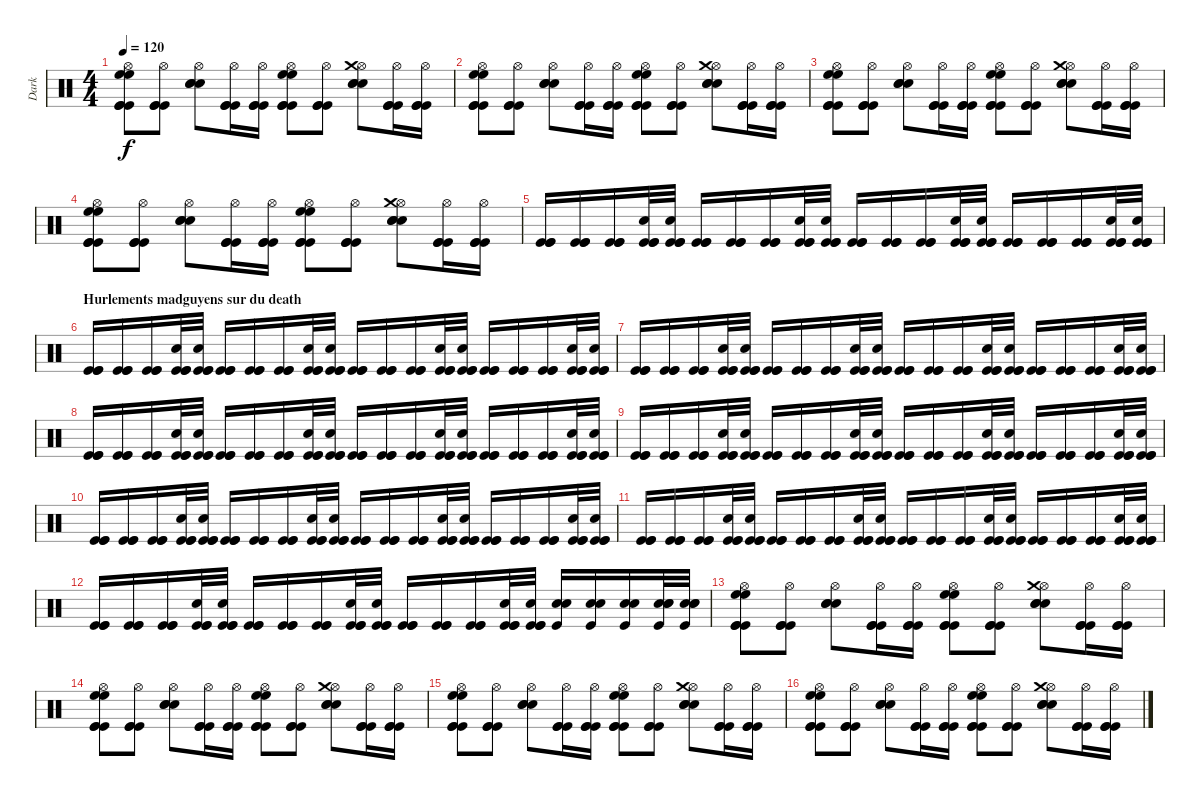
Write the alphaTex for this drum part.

\track ("Dark" "Dark") {instrument percussion}
\staff {score}
\articulation defaults
\ts (4 4)
\tempo 120
\clef neutral
\ks c
("Hi-Hat (open)" "High Floor Tom (hit)" "High Floor Tom (hit)" "Kick (hit)" "Kick (hit)" "Kick (hit)").8{dy f} ("Hi-Hat (open)" "Kick (hit)" "Kick (hit)" "Kick (hit)").8 ("Hi-Hat (open)" "Snare (hit) 2" "Snare (hit) 2" "Snare (hit) 2").8 ("Hi-Hat (open)" "Kick (hit)" "Kick (hit)" "Kick (hit)").16 ("Hi-Hat (open)" "Kick (hit)" "Kick (hit)" "Kick (hit)").16 ("Hi-Hat (open)" "High Floor Tom (hit)" "High Floor Tom (hit)" "Kick (hit)" "Kick (hit)" "Kick (hit)").8 ("Hi-Hat (open)" "Kick (hit)" "Kick (hit)" "Kick (hit)").8 ("Hi-Hat (open)" "Crash medium (hit)" "Snare (hit) 2" "Snare (hit) 2" "Snare (hit) 2").8 ("Hi-Hat (open)" "Kick (hit)" "Kick (hit)" "Kick (hit)").16 ("Hi-Hat (open)" "Kick (hit)" "Kick (hit)" "Kick (hit)").16 |
("Hi-Hat (open)" "High Floor Tom (hit)" "High Floor Tom (hit)" "Kick (hit)" "Kick (hit)" "Kick (hit)").8 ("Hi-Hat (open)" "Kick (hit)" "Kick (hit)" "Kick (hit)").8 ("Hi-Hat (open)" "Snare (hit) 2" "Snare (hit) 2" "Snare (hit) 2").8 ("Hi-Hat (open)" "Kick (hit)" "Kick (hit)" "Kick (hit)").16 ("Hi-Hat (open)" "Kick (hit)" "Kick (hit)" "Kick (hit)").16 ("Hi-Hat (open)" "High Floor Tom (hit)" "High Floor Tom (hit)" "Kick (hit)" "Kick (hit)" "Kick (hit)").8 ("Hi-Hat (open)" "Kick (hit)" "Kick (hit)" "Kick (hit)").8 ("Hi-Hat (open)" "Crash medium (hit)" "Snare (hit) 2" "Snare (hit) 2" "Snare (hit) 2").8 ("Hi-Hat (open)" "Kick (hit)" "Kick (hit)" "Kick (hit)").16 ("Hi-Hat (open)" "Kick (hit)" "Kick (hit)" "Kick (hit)").16 |
("Hi-Hat (open)" "High Floor Tom (hit)" "High Floor Tom (hit)" "Kick (hit)" "Kick (hit)" "Kick (hit)").8 ("Hi-Hat (open)" "Kick (hit)" "Kick (hit)" "Kick (hit)").8 ("Hi-Hat (open)" "Snare (hit) 2" "Snare (hit) 2" "Snare (hit) 2").8 ("Hi-Hat (open)" "Kick (hit)" "Kick (hit)" "Kick (hit)").16 ("Hi-Hat (open)" "Kick (hit)" "Kick (hit)" "Kick (hit)").16 ("Hi-Hat (open)" "High Floor Tom (hit)" "High Floor Tom (hit)" "Kick (hit)" "Kick (hit)" "Kick (hit)").8 ("Hi-Hat (open)" "Kick (hit)" "Kick (hit)" "Kick (hit)").8 ("Hi-Hat (open)" "Crash medium (hit)" "Snare (hit) 2" "Snare (hit) 2" "Snare (hit) 2").8 ("Hi-Hat (open)" "Kick (hit)" "Kick (hit)" "Kick (hit)").16 ("Hi-Hat (open)" "Kick (hit)" "Kick (hit)" "Kick (hit)").16 |
("Hi-Hat (open)" "High Floor Tom (hit)" "High Floor Tom (hit)" "Kick (hit)" "Kick (hit)" "Kick (hit)").8 ("Hi-Hat (open)" "Kick (hit)" "Kick (hit)" "Kick (hit)").8 ("Hi-Hat (open)" "Snare (hit) 2" "Snare (hit) 2" "Snare (hit) 2").8 ("Hi-Hat (open)" "Kick (hit)" "Kick (hit)" "Kick (hit)").16 ("Hi-Hat (open)" "Kick (hit)" "Kick (hit)" "Kick (hit)").16 ("Hi-Hat (open)" "High Floor Tom (hit)" "High Floor Tom (hit)" "Kick (hit)" "Kick (hit)" "Kick (hit)").8 ("Hi-Hat (open)" "Kick (hit)" "Kick (hit)" "Kick (hit)").8 ("Hi-Hat (open)" "Crash medium (hit)" "Snare (hit) 2" "Snare (hit) 2" "Snare (hit) 2").8 ("Hi-Hat (open)" "Kick (hit)" "Kick (hit)" "Kick (hit)").16 ("Hi-Hat (open)" "Kick (hit)" "Kick (hit)" "Kick (hit)").16 |
("Kick (hit)" "Kick (hit)" "Kick (hit)").16 ("Kick (hit)" "Kick (hit)" "Kick (hit)").16 ("Kick (hit)" "Kick (hit)" "Kick (hit)").16 ("Snare (hit) 2" "Kick (hit)" "Kick (hit)" "Kick (hit)").32 ("Snare (hit) 2" "Kick (hit)" "Kick (hit)" "Kick (hit)").32 ("Kick (hit)" "Kick (hit)" "Kick (hit)").16 ("Kick (hit)" "Kick (hit)" "Kick (hit)").16 ("Kick (hit)" "Kick (hit)" "Kick (hit)").16 ("Snare (hit) 2" "Kick (hit)" "Kick (hit)" "Kick (hit)").32 ("Snare (hit) 2" "Kick (hit)" "Kick (hit)" "Kick (hit)").32 ("Kick (hit)" "Kick (hit)" "Kick (hit)").16 ("Kick (hit)" "Kick (hit)" "Kick (hit)").16 ("Kick (hit)" "Kick (hit)" "Kick (hit)").16 ("Snare (hit) 2" "Kick (hit)" "Kick (hit)" "Kick (hit)").32 ("Snare (hit) 2" "Kick (hit)" "Kick (hit)" "Kick (hit)").32 ("Kick (hit)" "Kick (hit)" "Kick (hit)").16 ("Kick (hit)" "Kick (hit)" "Kick (hit)").16 ("Kick (hit)" "Kick (hit)" "Kick (hit)").16 ("Snare (hit) 2" "Kick (hit)" "Kick (hit)" "Kick (hit)").32 ("Snare (hit) 2" "Kick (hit)" "Kick (hit)" "Kick (hit)").32 |
\section ("" "Hurlements madguyens sur du death")
("Kick (hit)" "Kick (hit)" "Kick (hit)").16 ("Kick (hit)" "Kick (hit)" "Kick (hit)").16 ("Kick (hit)" "Kick (hit)" "Kick (hit)").16 ("Snare (hit) 2" "Kick (hit)" "Kick (hit)" "Kick (hit)").32 ("Snare (hit) 2" "Kick (hit)" "Kick (hit)" "Kick (hit)").32 ("Kick (hit)" "Kick (hit)" "Kick (hit)").16 ("Kick (hit)" "Kick (hit)" "Kick (hit)").16 ("Kick (hit)" "Kick (hit)" "Kick (hit)").16 ("Snare (hit) 2" "Kick (hit)" "Kick (hit)" "Kick (hit)").32 ("Snare (hit) 2" "Kick (hit)" "Kick (hit)" "Kick (hit)").32 ("Kick (hit)" "Kick (hit)" "Kick (hit)").16 ("Kick (hit)" "Kick (hit)" "Kick (hit)").16 ("Kick (hit)" "Kick (hit)" "Kick (hit)").16 ("Snare (hit) 2" "Kick (hit)" "Kick (hit)" "Kick (hit)").32 ("Snare (hit) 2" "Kick (hit)" "Kick (hit)" "Kick (hit)").32 ("Kick (hit)" "Kick (hit)" "Kick (hit)").16 ("Kick (hit)" "Kick (hit)" "Kick (hit)").16 ("Kick (hit)" "Kick (hit)" "Kick (hit)").16 ("Snare (hit) 2" "Kick (hit)" "Kick (hit)" "Kick (hit)").32 ("Snare (hit) 2" "Kick (hit)" "Kick (hit)" "Kick (hit)").32 |
("Kick (hit)" "Kick (hit)" "Kick (hit)").16 ("Kick (hit)" "Kick (hit)" "Kick (hit)").16 ("Kick (hit)" "Kick (hit)" "Kick (hit)").16 ("Snare (hit) 2" "Kick (hit)" "Kick (hit)" "Kick (hit)").32 ("Snare (hit) 2" "Kick (hit)" "Kick (hit)" "Kick (hit)").32 ("Kick (hit)" "Kick (hit)" "Kick (hit)").16 ("Kick (hit)" "Kick (hit)" "Kick (hit)").16 ("Kick (hit)" "Kick (hit)" "Kick (hit)").16 ("Snare (hit) 2" "Kick (hit)" "Kick (hit)" "Kick (hit)").32 ("Snare (hit) 2" "Kick (hit)" "Kick (hit)" "Kick (hit)").32 ("Kick (hit)" "Kick (hit)" "Kick (hit)").16 ("Kick (hit)" "Kick (hit)" "Kick (hit)").16 ("Kick (hit)" "Kick (hit)" "Kick (hit)").16 ("Snare (hit) 2" "Kick (hit)" "Kick (hit)" "Kick (hit)").32 ("Snare (hit) 2" "Kick (hit)" "Kick (hit)" "Kick (hit)").32 ("Kick (hit)" "Kick (hit)" "Kick (hit)").16 ("Kick (hit)" "Kick (hit)" "Kick (hit)").16 ("Kick (hit)" "Kick (hit)" "Kick (hit)").16 ("Snare (hit) 2" "Kick (hit)" "Kick (hit)" "Kick (hit)").32 ("Snare (hit) 2" "Kick (hit)" "Kick (hit)" "Kick (hit)").32 |
("Kick (hit)" "Kick (hit)" "Kick (hit)").16 ("Kick (hit)" "Kick (hit)" "Kick (hit)").16 ("Kick (hit)" "Kick (hit)" "Kick (hit)").16 ("Snare (hit) 2" "Kick (hit)" "Kick (hit)" "Kick (hit)").32 ("Snare (hit) 2" "Kick (hit)" "Kick (hit)" "Kick (hit)").32 ("Kick (hit)" "Kick (hit)" "Kick (hit)").16 ("Kick (hit)" "Kick (hit)" "Kick (hit)").16 ("Kick (hit)" "Kick (hit)" "Kick (hit)").16 ("Snare (hit) 2" "Kick (hit)" "Kick (hit)" "Kick (hit)").32 ("Snare (hit) 2" "Kick (hit)" "Kick (hit)" "Kick (hit)").32 ("Kick (hit)" "Kick (hit)" "Kick (hit)").16 ("Kick (hit)" "Kick (hit)" "Kick (hit)").16 ("Kick (hit)" "Kick (hit)" "Kick (hit)").16 ("Snare (hit) 2" "Kick (hit)" "Kick (hit)" "Kick (hit)").32 ("Snare (hit) 2" "Kick (hit)" "Kick (hit)" "Kick (hit)").32 ("Kick (hit)" "Kick (hit)" "Kick (hit)").16 ("Kick (hit)" "Kick (hit)" "Kick (hit)").16 ("Kick (hit)" "Kick (hit)" "Kick (hit)").16 ("Snare (hit) 2" "Kick (hit)" "Kick (hit)" "Kick (hit)").32 ("Snare (hit) 2" "Kick (hit)" "Kick (hit)" "Kick (hit)").32 |
("Kick (hit)" "Kick (hit)" "Kick (hit)").16 ("Kick (hit)" "Kick (hit)" "Kick (hit)").16 ("Kick (hit)" "Kick (hit)" "Kick (hit)").16 ("Snare (hit) 2" "Kick (hit)" "Kick (hit)" "Kick (hit)").32 ("Snare (hit) 2" "Kick (hit)" "Kick (hit)" "Kick (hit)").32 ("Kick (hit)" "Kick (hit)" "Kick (hit)").16 ("Kick (hit)" "Kick (hit)" "Kick (hit)").16 ("Kick (hit)" "Kick (hit)" "Kick (hit)").16 ("Snare (hit) 2" "Kick (hit)" "Kick (hit)" "Kick (hit)").32 ("Snare (hit) 2" "Kick (hit)" "Kick (hit)" "Kick (hit)").32 ("Kick (hit)" "Kick (hit)" "Kick (hit)").16 ("Kick (hit)" "Kick (hit)" "Kick (hit)").16 ("Kick (hit)" "Kick (hit)" "Kick (hit)").16 ("Snare (hit) 2" "Kick (hit)" "Kick (hit)" "Kick (hit)").32 ("Snare (hit) 2" "Kick (hit)" "Kick (hit)" "Kick (hit)").32 ("Kick (hit)" "Kick (hit)" "Kick (hit)").16 ("Kick (hit)" "Kick (hit)" "Kick (hit)").16 ("Kick (hit)" "Kick (hit)" "Kick (hit)").16 ("Snare (hit) 2" "Kick (hit)" "Kick (hit)" "Kick (hit)").32 ("Snare (hit) 2" "Kick (hit)" "Kick (hit)" "Kick (hit)").32 |
("Kick (hit)" "Kick (hit)" "Kick (hit)").16 ("Kick (hit)" "Kick (hit)" "Kick (hit)").16 ("Kick (hit)" "Kick (hit)" "Kick (hit)").16 ("Snare (hit) 2" "Kick (hit)" "Kick (hit)" "Kick (hit)").32 ("Snare (hit) 2" "Kick (hit)" "Kick (hit)" "Kick (hit)").32 ("Kick (hit)" "Kick (hit)" "Kick (hit)").16 ("Kick (hit)" "Kick (hit)" "Kick (hit)").16 ("Kick (hit)" "Kick (hit)" "Kick (hit)").16 ("Snare (hit) 2" "Kick (hit)" "Kick (hit)" "Kick (hit)").32 ("Snare (hit) 2" "Kick (hit)" "Kick (hit)" "Kick (hit)").32 ("Kick (hit)" "Kick (hit)" "Kick (hit)").16 ("Kick (hit)" "Kick (hit)" "Kick (hit)").16 ("Kick (hit)" "Kick (hit)" "Kick (hit)").16 ("Snare (hit) 2" "Kick (hit)" "Kick (hit)" "Kick (hit)").32 ("Snare (hit) 2" "Kick (hit)" "Kick (hit)" "Kick (hit)").32 ("Kick (hit)" "Kick (hit)" "Kick (hit)").16 ("Kick (hit)" "Kick (hit)" "Kick (hit)").16 ("Kick (hit)" "Kick (hit)" "Kick (hit)").16 ("Snare (hit) 2" "Kick (hit)" "Kick (hit)" "Kick (hit)").32 ("Snare (hit) 2" "Kick (hit)" "Kick (hit)" "Kick (hit)").32 |
("Kick (hit)" "Kick (hit)" "Kick (hit)").16 ("Kick (hit)" "Kick (hit)" "Kick (hit)").16 ("Kick (hit)" "Kick (hit)" "Kick (hit)").16 ("Snare (hit) 2" "Kick (hit)" "Kick (hit)" "Kick (hit)").32 ("Snare (hit) 2" "Kick (hit)" "Kick (hit)" "Kick (hit)").32 ("Kick (hit)" "Kick (hit)" "Kick (hit)").16 ("Kick (hit)" "Kick (hit)" "Kick (hit)").16 ("Kick (hit)" "Kick (hit)" "Kick (hit)").16 ("Snare (hit) 2" "Kick (hit)" "Kick (hit)" "Kick (hit)").32 ("Snare (hit) 2" "Kick (hit)" "Kick (hit)" "Kick (hit)").32 ("Kick (hit)" "Kick (hit)" "Kick (hit)").16 ("Kick (hit)" "Kick (hit)" "Kick (hit)").16 ("Kick (hit)" "Kick (hit)" "Kick (hit)").16 ("Snare (hit) 2" "Kick (hit)" "Kick (hit)" "Kick (hit)").32 ("Snare (hit) 2" "Kick (hit)" "Kick (hit)" "Kick (hit)").32 ("Kick (hit)" "Kick (hit)" "Kick (hit)").16 ("Kick (hit)" "Kick (hit)" "Kick (hit)").16 ("Kick (hit)" "Kick (hit)" "Kick (hit)").16 ("Snare (hit) 2" "Kick (hit)" "Kick (hit)" "Kick (hit)").32 ("Snare (hit) 2" "Kick (hit)" "Kick (hit)" "Kick (hit)").32 |
("Kick (hit)" "Kick (hit)" "Kick (hit)").16 ("Kick (hit)" "Kick (hit)" "Kick (hit)").16 ("Kick (hit)" "Kick (hit)" "Kick (hit)").16 ("Snare (hit) 2" "Kick (hit)" "Kick (hit)" "Kick (hit)").32 ("Snare (hit) 2" "Kick (hit)" "Kick (hit)" "Kick (hit)").32 ("Kick (hit)" "Kick (hit)" "Kick (hit)").16 ("Kick (hit)" "Kick (hit)" "Kick (hit)").16 ("Kick (hit)" "Kick (hit)" "Kick (hit)").16 ("Snare (hit) 2" "Kick (hit)" "Kick (hit)" "Kick (hit)").32 ("Snare (hit) 2" "Kick (hit)" "Kick (hit)" "Kick (hit)").32 ("Kick (hit)" "Kick (hit)" "Kick (hit)").16 ("Kick (hit)" "Kick (hit)" "Kick (hit)").16 ("Kick (hit)" "Kick (hit)" "Kick (hit)").16 ("Snare (hit) 2" "Kick (hit)" "Kick (hit)" "Kick (hit)").32 ("Snare (hit) 2" "Kick (hit)" "Kick (hit)" "Kick (hit)").32 ("Snare (hit) 2" "Snare (hit) 2" "Kick (hit)").16 ("Snare (hit) 2" "Snare (hit) 2" "Kick (hit)").16 ("Snare (hit) 2" "Snare (hit) 2" "Kick (hit)").16 ("Snare (hit) 2" "Snare (hit) 2" "Snare (hit) 2" "Kick (hit)").32 ("Snare (hit) 2" "Snare (hit) 2" "Snare (hit) 2" "Kick (hit)").32 |
("Hi-Hat (open)" "High Floor Tom (hit)" "High Floor Tom (hit)" "Kick (hit)" "Kick (hit)" "Kick (hit)").8 ("Hi-Hat (open)" "Kick (hit)" "Kick (hit)" "Kick (hit)").8 ("Hi-Hat (open)" "Snare (hit) 2" "Snare (hit) 2" "Snare (hit) 2").8 ("Hi-Hat (open)" "Kick (hit)" "Kick (hit)" "Kick (hit)").16 ("Hi-Hat (open)" "Kick (hit)" "Kick (hit)" "Kick (hit)").16 ("Hi-Hat (open)" "High Floor Tom (hit)" "High Floor Tom (hit)" "Kick (hit)" "Kick (hit)" "Kick (hit)").8 ("Hi-Hat (open)" "Kick (hit)" "Kick (hit)" "Kick (hit)").8 ("Hi-Hat (open)" "Crash medium (hit)" "Snare (hit) 2" "Snare (hit) 2" "Snare (hit) 2").8 ("Hi-Hat (open)" "Kick (hit)" "Kick (hit)" "Kick (hit)").16 ("Hi-Hat (open)" "Kick (hit)" "Kick (hit)" "Kick (hit)").16 |
("Hi-Hat (open)" "High Floor Tom (hit)" "High Floor Tom (hit)" "Kick (hit)" "Kick (hit)" "Kick (hit)").8 ("Hi-Hat (open)" "Kick (hit)" "Kick (hit)" "Kick (hit)").8 ("Hi-Hat (open)" "Snare (hit) 2" "Snare (hit) 2" "Snare (hit) 2").8 ("Hi-Hat (open)" "Kick (hit)" "Kick (hit)" "Kick (hit)").16 ("Hi-Hat (open)" "Kick (hit)" "Kick (hit)" "Kick (hit)").16 ("Hi-Hat (open)" "High Floor Tom (hit)" "High Floor Tom (hit)" "Kick (hit)" "Kick (hit)" "Kick (hit)").8 ("Hi-Hat (open)" "Kick (hit)" "Kick (hit)" "Kick (hit)").8 ("Hi-Hat (open)" "Crash medium (hit)" "Snare (hit) 2" "Snare (hit) 2" "Snare (hit) 2").8 ("Hi-Hat (open)" "Kick (hit)" "Kick (hit)" "Kick (hit)").16 ("Hi-Hat (open)" "Kick (hit)" "Kick (hit)" "Kick (hit)").16 |
("Hi-Hat (open)" "High Floor Tom (hit)" "High Floor Tom (hit)" "Kick (hit)" "Kick (hit)" "Kick (hit)").8 ("Hi-Hat (open)" "Kick (hit)" "Kick (hit)" "Kick (hit)").8 ("Hi-Hat (open)" "Snare (hit) 2" "Snare (hit) 2" "Snare (hit) 2").8 ("Hi-Hat (open)" "Kick (hit)" "Kick (hit)" "Kick (hit)").16 ("Hi-Hat (open)" "Kick (hit)" "Kick (hit)" "Kick (hit)").16 ("Hi-Hat (open)" "High Floor Tom (hit)" "High Floor Tom (hit)" "Kick (hit)" "Kick (hit)" "Kick (hit)").8 ("Hi-Hat (open)" "Kick (hit)" "Kick (hit)" "Kick (hit)").8 ("Hi-Hat (open)" "Crash medium (hit)" "Snare (hit) 2" "Snare (hit) 2" "Snare (hit) 2").8 ("Hi-Hat (open)" "Kick (hit)" "Kick (hit)" "Kick (hit)").16 ("Hi-Hat (open)" "Kick (hit)" "Kick (hit)" "Kick (hit)").16 |
("Hi-Hat (open)" "High Floor Tom (hit)" "High Floor Tom (hit)" "Kick (hit)" "Kick (hit)" "Kick (hit)").8 ("Hi-Hat (open)" "Kick (hit)" "Kick (hit)" "Kick (hit)").8 ("Hi-Hat (open)" "Snare (hit) 2" "Snare (hit) 2" "Snare (hit) 2").8 ("Hi-Hat (open)" "Kick (hit)" "Kick (hit)" "Kick (hit)").16 ("Hi-Hat (open)" "Kick (hit)" "Kick (hit)" "Kick (hit)").16 ("Hi-Hat (open)" "High Floor Tom (hit)" "High Floor Tom (hit)" "Kick (hit)" "Kick (hit)" "Kick (hit)").8 ("Hi-Hat (open)" "Kick (hit)" "Kick (hit)" "Kick (hit)").8 ("Hi-Hat (open)" "Crash medium (hit)" "Snare (hit) 2" "Snare (hit) 2" "Snare (hit) 2").8 ("Hi-Hat (open)" "Kick (hit)" "Kick (hit)" "Kick (hit)").16 ("Hi-Hat (open)" "Kick (hit)" "Kick (hit)" "Kick (hit)").16
